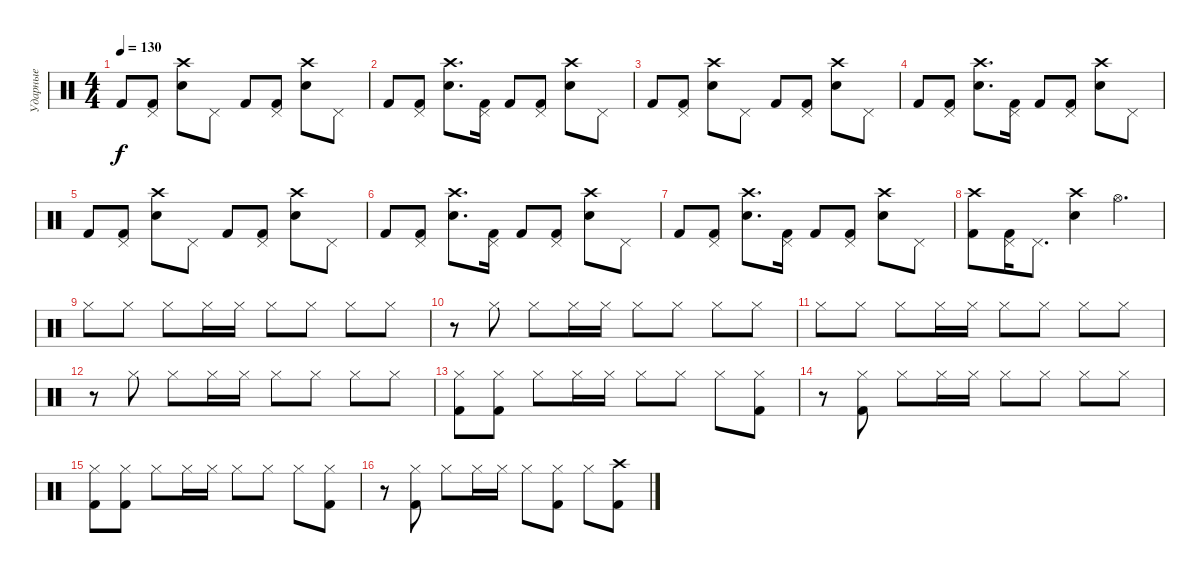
\track ("Ударные" "Ударные") {instrument percussion}
\staff {score}
\articulation defaults
\ts (4 4)
\tempo 130
\clef neutral
\ks c "Kick (hit) 2".8{dy f}
("Pedal Hi-Hat (hit)" "Kick (hit) 2").8 ("Crash high (hit)" "Snare (hit) 2").8 "Pedal Hi-Hat (hit)".8 "Kick (hit) 2".8 ("Pedal Hi-Hat (hit)" "Kick (hit) 2").8 ("Crash high (hit)" "Snare (hit) 2").8 "Pedal Hi-Hat (hit)".8 |
"Kick (hit) 2".8 ("Pedal Hi-Hat (hit)" "Kick (hit) 2").8 ("Crash high (hit)" "Snare (hit) 2").8{d} ("Pedal Hi-Hat (hit)" "Kick (hit) 2").16 "Kick (hit) 2".8 ("Pedal Hi-Hat (hit)" "Kick (hit) 2").8 ("Crash high (hit)" "Snare (hit) 2").8 "Pedal Hi-Hat (hit)".8 |
"Kick (hit) 2".8 ("Pedal Hi-Hat (hit)" "Kick (hit) 2").8 ("Crash high (hit)" "Snare (hit) 2").8 "Pedal Hi-Hat (hit)".8 "Kick (hit) 2".8 ("Pedal Hi-Hat (hit)" "Kick (hit) 2").8 ("Crash high (hit)" "Snare (hit) 2").8 "Pedal Hi-Hat (hit)".8 |
"Kick (hit) 2".8 ("Pedal Hi-Hat (hit)" "Kick (hit) 2").8 ("Crash high (hit)" "Snare (hit) 2").8{d} ("Pedal Hi-Hat (hit)" "Kick (hit) 2").16 "Kick (hit) 2".8 ("Pedal Hi-Hat (hit)" "Kick (hit) 2").8 ("Crash high (hit)" "Snare (hit) 2").8 "Pedal Hi-Hat (hit)".8 |
"Kick (hit) 2".8 ("Pedal Hi-Hat (hit)" "Kick (hit) 2").8 ("Crash high (hit)" "Snare (hit) 2").8 "Pedal Hi-Hat (hit)".8 "Kick (hit) 2".8 ("Pedal Hi-Hat (hit)" "Kick (hit) 2").8 ("Crash high (hit)" "Snare (hit) 2").8 "Pedal Hi-Hat (hit)".8 |
"Kick (hit) 2".8 ("Pedal Hi-Hat (hit)" "Kick (hit) 2").8 ("Crash high (hit)" "Snare (hit) 2").8{d} ("Pedal Hi-Hat (hit)" "Kick (hit) 2").16 "Kick (hit) 2".8 ("Pedal Hi-Hat (hit)" "Kick (hit) 2").8 ("Crash high (hit)" "Snare (hit) 2").8 "Pedal Hi-Hat (hit)".8 |
"Kick (hit) 2".8 ("Pedal Hi-Hat (hit)" "Kick (hit) 2").8 ("Crash high (hit)" "Snare (hit) 2").8{d} ("Pedal Hi-Hat (hit)" "Kick (hit) 2").16 "Kick (hit) 2".8 ("Pedal Hi-Hat (hit)" "Kick (hit) 2").8 ("Crash high (hit)" "Snare (hit) 2").8 "Pedal Hi-Hat (hit)".8 |
("Crash high (hit)" "Kick (hit) 2").8 ("Pedal Hi-Hat (hit)" "Kick (hit) 2").16 "Pedal Hi-Hat (hit)".8{d} ("Crash high (hit)" "Snare (hit) 2").4 "Hi-Hat (open)".4{d} |
"Hi-Hat (closed)".8 "Hi-Hat (closed)".8 "Hi-Hat (closed)".8 "Hi-Hat (closed)".16 "Hi-Hat (closed)".16 "Hi-Hat (closed)".8 "Hi-Hat (closed)".8 "Hi-Hat (closed)".8 "Hi-Hat (closed)".8 |
r.8 "Hi-Hat (closed)".8 "Hi-Hat (closed)".8 "Hi-Hat (closed)".16 "Hi-Hat (closed)".16 "Hi-Hat (closed)".8 "Hi-Hat (closed)".8 "Hi-Hat (closed)".8 "Hi-Hat (closed)".8 |
"Hi-Hat (closed)".8 "Hi-Hat (closed)".8 "Hi-Hat (closed)".8 "Hi-Hat (closed)".16 "Hi-Hat (closed)".16 "Hi-Hat (closed)".8 "Hi-Hat (closed)".8 "Hi-Hat (closed)".8 "Hi-Hat (closed)".8 |
r.8 "Hi-Hat (closed)".8 "Hi-Hat (closed)".8 "Hi-Hat (closed)".16 "Hi-Hat (closed)".16 "Hi-Hat (closed)".8 "Hi-Hat (closed)".8 "Hi-Hat (closed)".8 "Hi-Hat (closed)".8 |
("Hi-Hat (closed)" "Kick (hit) 2").8{volume 16} ("Hi-Hat (closed)" "Kick (hit) 2").8 "Hi-Hat (closed)".8 "Hi-Hat (closed)".16 "Hi-Hat (closed)".16 "Hi-Hat (closed)".8 "Hi-Hat (closed)".8 "Hi-Hat (closed)".8 ("Hi-Hat (closed)" "Kick (hit) 2").8 |
r.8 ("Hi-Hat (closed)" "Kick (hit) 2").8 "Hi-Hat (closed)".8 "Hi-Hat (closed)".16 "Hi-Hat (closed)".16 "Hi-Hat (closed)".8 "Hi-Hat (closed)".8 "Hi-Hat (closed)".8 "Hi-Hat (closed)".8 |
("Hi-Hat (closed)" "Kick (hit) 2").8 ("Hi-Hat (closed)" "Kick (hit) 2").8 "Hi-Hat (closed)".8 "Hi-Hat (closed)".16 "Hi-Hat (closed)".16 "Hi-Hat (closed)".8 "Hi-Hat (closed)".8 "Hi-Hat (closed)".8 ("Hi-Hat (closed)" "Kick (hit) 2").8 |
r.8 ("Hi-Hat (closed)" "Kick (hit) 2").8 "Hi-Hat (closed)".8 "Hi-Hat (closed)".16 "Hi-Hat (closed)".16 "Hi-Hat (closed)".8 ("Hi-Hat (closed)" "Kick (hit) 2").8 "Hi-Hat (closed)".8 ("Crash high (hit)" "Kick (hit) 2").8
